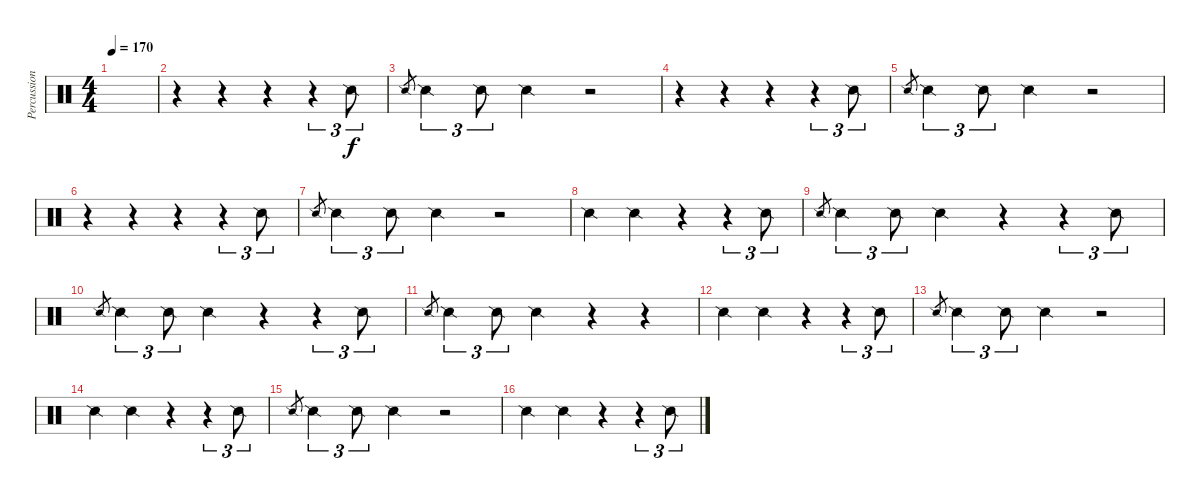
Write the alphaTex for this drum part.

\track ("Percussion" "Percussion") {instrument percussion}
\staff {score}
\articulation defaults
\ts (4 4)
\tempo 170
\clef neutral
\ks c
|
r.4 r.4 r.4 r.4{tu (3 2)} "Snare (side stick) 2".8{tu (3 2)} |
"Snare (side stick) 2".8{gr} "Snare (side stick) 2".4{tu (3 2)} "Snare (side stick) 2".8{tu (3 2)} "Snare (side stick) 2".4 r.2 |
r.4 r.4 r.4 r.4{tu (3 2)} "Snare (side stick) 2".8{tu (3 2)} |
"Snare (side stick) 2".8{gr} "Snare (side stick) 2".4{tu (3 2)} "Snare (side stick) 2".8{tu (3 2)} "Snare (side stick) 2".4 r.2 |
r.4 r.4 r.4 r.4{tu (3 2)} "Snare (side stick) 2".8{tu (3 2)} |
"Snare (side stick) 2".8{gr} "Snare (side stick) 2".4{tu (3 2)} "Snare (side stick) 2".8{tu (3 2)} "Snare (side stick) 2".4 r.2 |
"Snare (side stick) 2".4 "Snare (side stick) 2".4 r.4 r.4{tu (3 2)} "Snare (side stick) 2".8{tu (3 2)} |
"Snare (side stick) 2".8{gr} "Snare (side stick) 2".4{tu (3 2)} "Snare (side stick) 2".8{tu (3 2)} "Snare (side stick) 2".4 r.4 r.4{tu (3 2)} "Snare (side stick) 2".8{tu (3 2)} |
"Snare (side stick) 2".8{gr} "Snare (side stick) 2".4{tu (3 2)} "Snare (side stick) 2".8{tu (3 2)} "Snare (side stick) 2".4 r.4 r.4{tu (3 2)} "Snare (side stick) 2".8{tu (3 2)} |
"Snare (side stick) 2".8{gr} "Snare (side stick) 2".4{tu (3 2)} "Snare (side stick) 2".8{tu (3 2)} "Snare (side stick) 2".4 r.4 r.4 |
"Snare (side stick) 2".4 "Snare (side stick) 2".4 r.4 r.4{tu (3 2)} "Snare (side stick) 2".8{tu (3 2)} |
"Snare (side stick) 2".8{gr} "Snare (side stick) 2".4{tu (3 2)} "Snare (side stick) 2".8{tu (3 2)} "Snare (side stick) 2".4 r.2 |
"Snare (side stick) 2".4 "Snare (side stick) 2".4 r.4 r.4{tu (3 2)} "Snare (side stick) 2".8{tu (3 2)} |
"Snare (side stick) 2".8{gr} "Snare (side stick) 2".4{tu (3 2)} "Snare (side stick) 2".8{tu (3 2)} "Snare (side stick) 2".4 r.2 |
"Snare (side stick) 2".4 "Snare (side stick) 2".4 r.4 r.4{tu (3 2)} "Snare (side stick) 2".8{tu (3 2)}
